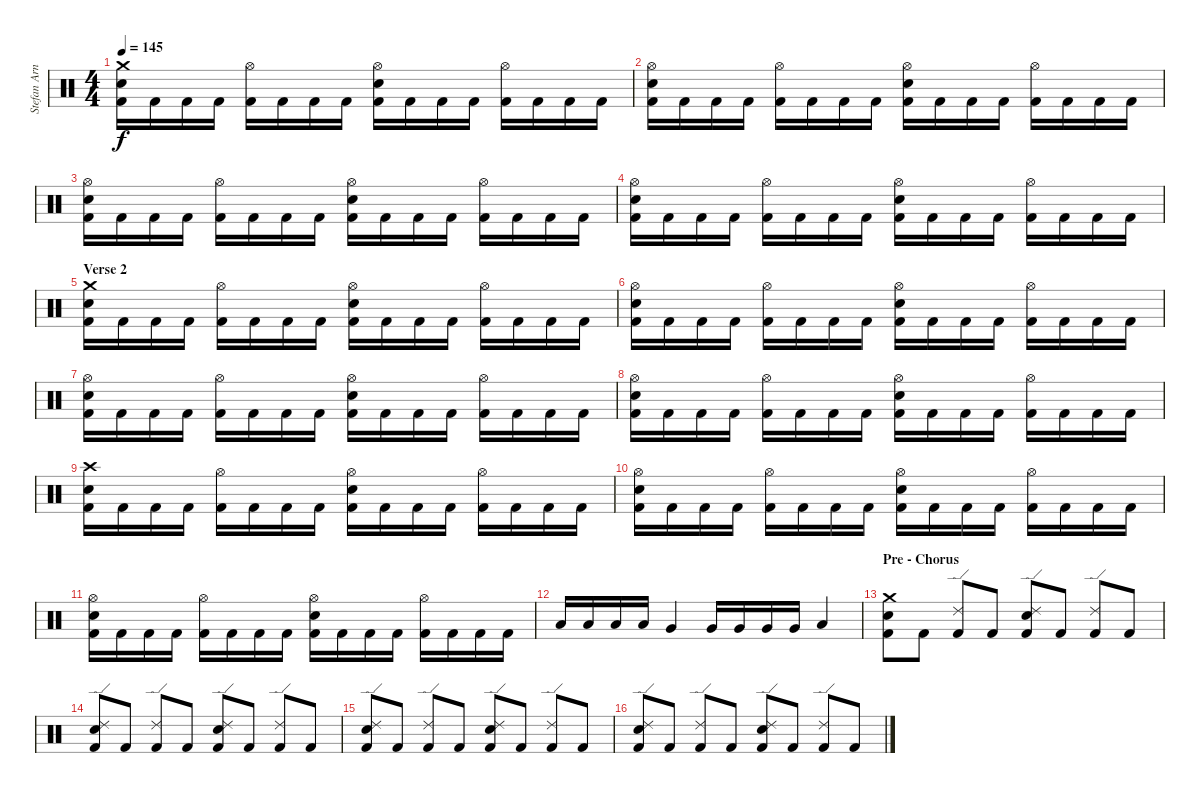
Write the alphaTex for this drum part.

\track ("Stefan Arnold" "Stefan Arn") {instrument percussion}
\staff {score}
\articulation defaults
\ts (4 4)
\tempo 145
\clef neutral
\ks c
("Crash medium (hit)" "Electric Snare (hit)" "Kick (hit) 2").16{dy f} "Kick (hit) 2".16 "Kick (hit) 2".16 "Kick (hit) 2".16 ("Hi-Hat (open)" "Kick (hit) 2").16 "Kick (hit) 2".16 "Kick (hit) 2".16 "Kick (hit) 2".16 ("Hi-Hat (open)" "Electric Snare (hit)" "Kick (hit) 2").16 "Kick (hit) 2".16 "Kick (hit) 2".16 "Kick (hit) 2".16 ("Hi-Hat (open)" "Kick (hit) 2").16 "Kick (hit) 2".16 "Kick (hit) 2".16 "Kick (hit) 2".16 |
("Hi-Hat (open)" "Electric Snare (hit)" "Kick (hit) 2").16 "Kick (hit) 2".16 "Kick (hit) 2".16 "Kick (hit) 2".16 ("Hi-Hat (open)" "Kick (hit) 2").16 "Kick (hit) 2".16 "Kick (hit) 2".16 "Kick (hit) 2".16 ("Hi-Hat (open)" "Electric Snare (hit)" "Kick (hit) 2").16 "Kick (hit) 2".16 "Kick (hit) 2".16 "Kick (hit) 2".16 ("Hi-Hat (open)" "Kick (hit) 2").16 "Kick (hit) 2".16 "Kick (hit) 2".16 "Kick (hit) 2".16 |
("Hi-Hat (open)" "Electric Snare (hit)" "Kick (hit) 2").16 "Kick (hit) 2".16 "Kick (hit) 2".16 "Kick (hit) 2".16 ("Hi-Hat (open)" "Kick (hit) 2").16 "Kick (hit) 2".16 "Kick (hit) 2".16 "Kick (hit) 2".16 ("Hi-Hat (open)" "Electric Snare (hit)" "Kick (hit) 2").16 "Kick (hit) 2".16 "Kick (hit) 2".16 "Kick (hit) 2".16 ("Hi-Hat (open)" "Kick (hit) 2").16 "Kick (hit) 2".16 "Kick (hit) 2".16 "Kick (hit) 2".16 |
("Hi-Hat (open)" "Electric Snare (hit)" "Kick (hit) 2").16 "Kick (hit) 2".16 "Kick (hit) 2".16 "Kick (hit) 2".16 ("Hi-Hat (open)" "Kick (hit) 2").16 "Kick (hit) 2".16 "Kick (hit) 2".16 "Kick (hit) 2".16 ("Hi-Hat (open)" "Electric Snare (hit)" "Kick (hit) 2").16 "Kick (hit) 2".16 "Kick (hit) 2".16 "Kick (hit) 2".16 ("Hi-Hat (open)" "Kick (hit) 2").16 "Kick (hit) 2".16 "Kick (hit) 2".16 "Kick (hit) 2".16 |
\section ("" "Verse 2")
("Crash medium (hit)" "Electric Snare (hit)" "Kick (hit) 2").16 "Kick (hit) 2".16 "Kick (hit) 2".16 "Kick (hit) 2".16 ("Hi-Hat (open)" "Kick (hit) 2").16 "Kick (hit) 2".16 "Kick (hit) 2".16 "Kick (hit) 2".16 ("Hi-Hat (open)" "Electric Snare (hit)" "Kick (hit) 2").16 "Kick (hit) 2".16 "Kick (hit) 2".16 "Kick (hit) 2".16 ("Hi-Hat (open)" "Kick (hit) 2").16 "Kick (hit) 2".16 "Kick (hit) 2".16 "Kick (hit) 2".16 |
("Hi-Hat (open)" "Electric Snare (hit)" "Kick (hit) 2").16 "Kick (hit) 2".16 "Kick (hit) 2".16 "Kick (hit) 2".16 ("Hi-Hat (open)" "Kick (hit) 2").16 "Kick (hit) 2".16 "Kick (hit) 2".16 "Kick (hit) 2".16 ("Hi-Hat (open)" "Electric Snare (hit)" "Kick (hit) 2").16 "Kick (hit) 2".16 "Kick (hit) 2".16 "Kick (hit) 2".16 ("Hi-Hat (open)" "Kick (hit) 2").16 "Kick (hit) 2".16 "Kick (hit) 2".16 "Kick (hit) 2".16 |
("Hi-Hat (open)" "Electric Snare (hit)" "Kick (hit) 2").16 "Kick (hit) 2".16 "Kick (hit) 2".16 "Kick (hit) 2".16 ("Hi-Hat (open)" "Kick (hit) 2").16 "Kick (hit) 2".16 "Kick (hit) 2".16 "Kick (hit) 2".16 ("Hi-Hat (open)" "Electric Snare (hit)" "Kick (hit) 2").16 "Kick (hit) 2".16 "Kick (hit) 2".16 "Kick (hit) 2".16 ("Hi-Hat (open)" "Kick (hit) 2").16 "Kick (hit) 2".16 "Kick (hit) 2".16 "Kick (hit) 2".16 |
("Hi-Hat (open)" "Electric Snare (hit)" "Kick (hit) 2").16 "Kick (hit) 2".16 "Kick (hit) 2".16 "Kick (hit) 2".16 ("Hi-Hat (open)" "Kick (hit) 2").16 "Kick (hit) 2".16 "Kick (hit) 2".16 "Kick (hit) 2".16 ("Hi-Hat (open)" "Electric Snare (hit)" "Kick (hit) 2").16 "Kick (hit) 2".16 "Kick (hit) 2".16 "Kick (hit) 2".16 ("Hi-Hat (open)" "Kick (hit) 2").16 "Kick (hit) 2".16 "Kick (hit) 2".16 "Kick (hit) 2".16 |
("Crash high (hit)" "Electric Snare (hit)" "Kick (hit) 2").16 "Kick (hit) 2".16 "Kick (hit) 2".16 "Kick (hit) 2".16 ("Hi-Hat (open)" "Kick (hit) 2").16 "Kick (hit) 2".16 "Kick (hit) 2".16 "Kick (hit) 2".16 ("Hi-Hat (open)" "Electric Snare (hit)" "Kick (hit) 2").16 "Kick (hit) 2".16 "Kick (hit) 2".16 "Kick (hit) 2".16 ("Hi-Hat (open)" "Kick (hit) 2").16 "Kick (hit) 2".16 "Kick (hit) 2".16 "Kick (hit) 2".16 |
("Hi-Hat (open)" "Electric Snare (hit)" "Kick (hit) 2").16 "Kick (hit) 2".16 "Kick (hit) 2".16 "Kick (hit) 2".16 ("Hi-Hat (open)" "Kick (hit) 2").16 "Kick (hit) 2".16 "Kick (hit) 2".16 "Kick (hit) 2".16 ("Hi-Hat (open)" "Electric Snare (hit)" "Kick (hit) 2").16 "Kick (hit) 2".16 "Kick (hit) 2".16 "Kick (hit) 2".16 ("Hi-Hat (open)" "Kick (hit) 2").16 "Kick (hit) 2".16 "Kick (hit) 2".16 "Kick (hit) 2".16 |
("Hi-Hat (open)" "Electric Snare (hit)" "Kick (hit) 2").16 "Kick (hit) 2".16 "Kick (hit) 2".16 "Kick (hit) 2".16 ("Hi-Hat (open)" "Kick (hit) 2").16 "Kick (hit) 2".16 "Kick (hit) 2".16 "Kick (hit) 2".16 ("Hi-Hat (open)" "Electric Snare (hit)" "Kick (hit) 2").16 "Kick (hit) 2".16 "Kick (hit) 2".16 "Kick (hit) 2".16 ("Hi-Hat (open)" "Kick (hit) 2").16 "Kick (hit) 2".16 "Kick (hit) 2".16 "Kick (hit) 2".16 |
"Low Tom (hit)".16 "Low Tom (hit)".16 "Low Tom (hit)".16 "Low Tom (hit)".16 "Very Low Tom (hit)".4 "Very Low Tom (hit)".16 "Very Low Tom (hit)".16 "Very Low Tom (hit)".16 "Very Low Tom (hit)".16 "Low Floor Tom (hit)".4 |
\section ("" "Pre - Chorus")
("Crash medium (hit)" "Electric Snare (hit)" "Kick (hit) 2").8 "Kick (hit) 2".8 ("Ride (edge) 2" "Kick (hit) 2").8 "Kick (hit) 2".8 ("Ride (edge) 2" "Electric Snare (hit)" "Kick (hit) 2").8 "Kick (hit) 2".8 ("Ride (edge) 2" "Kick (hit) 2").8 "Kick (hit) 2".8 |
("Ride (edge) 2" "Electric Snare (hit)" "Kick (hit) 2").8 "Kick (hit) 2".8 ("Ride (edge) 2" "Kick (hit) 2").8 "Kick (hit) 2".8 ("Ride (edge) 2" "Electric Snare (hit)" "Kick (hit) 2").8 "Kick (hit) 2".8 ("Ride (edge) 2" "Kick (hit) 2").8 "Kick (hit) 2".8 |
("Ride (edge) 2" "Electric Snare (hit)" "Kick (hit) 2").8 "Kick (hit) 2".8 ("Ride (edge) 2" "Kick (hit) 2").8 "Kick (hit) 2".8 ("Ride (edge) 2" "Electric Snare (hit)" "Kick (hit) 2").8 "Kick (hit) 2".8 ("Ride (edge) 2" "Kick (hit) 2").8 "Kick (hit) 2".8 |
("Ride (edge) 2" "Electric Snare (hit)" "Kick (hit) 2").8 "Kick (hit) 2".8 ("Ride (edge) 2" "Kick (hit) 2").8 "Kick (hit) 2".8 ("Ride (edge) 2" "Electric Snare (hit)" "Kick (hit) 2").8 "Kick (hit) 2".8 ("Ride (edge) 2" "Kick (hit) 2").8 "Kick (hit) 2".8
